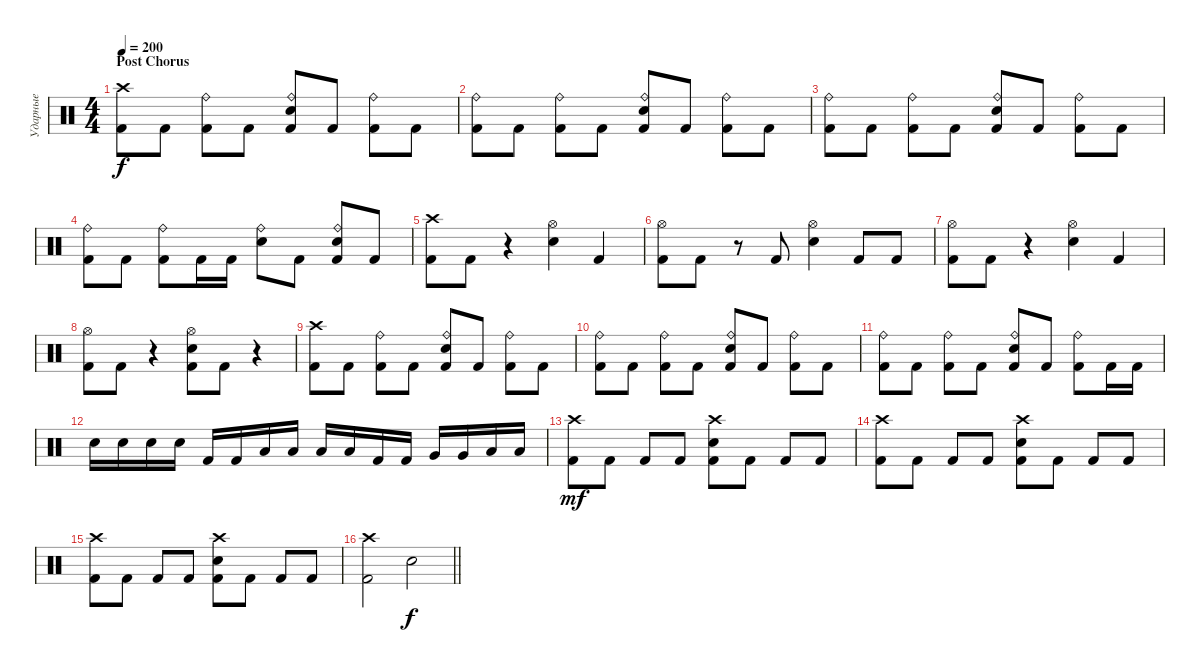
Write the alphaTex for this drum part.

\track ("Ударные" "Ударные") {instrument percussion}
\staff {score}
\articulation defaults
\ts (4 4)
\section ("" "Post Chorus")
\tempo 200
\clef neutral
\ks c
("Crash high (hit)" "Kick (hit) 2").8{dy f} "Kick (hit) 2".8 ("Ride (bell)" "Kick (hit) 2").8 "Kick (hit) 2".8 ("Ride (bell)" "Snare (hit) 2" "Kick (hit) 2").8 "Kick (hit) 2".8 ("Ride (bell)" "Kick (hit) 2").8 "Kick (hit) 2".8 |
("Ride (bell)" "Kick (hit) 2").8 "Kick (hit) 2".8 ("Ride (bell)" "Kick (hit) 2").8 "Kick (hit) 2".8 ("Ride (bell)" "Snare (hit) 2" "Kick (hit) 2").8 "Kick (hit) 2".8 ("Ride (bell)" "Kick (hit) 2").8 "Kick (hit) 2".8 |
("Ride (bell)" "Kick (hit) 2").8 "Kick (hit) 2".8 ("Ride (bell)" "Kick (hit) 2").8 "Kick (hit) 2".8 ("Ride (bell)" "Snare (hit) 2" "Kick (hit) 2").8 "Kick (hit) 2".8 ("Ride (bell)" "Kick (hit) 2").8 "Kick (hit) 2".8 |
("Ride (bell)" "Kick (hit) 2").8 "Kick (hit) 2".8 ("Ride (bell)" "Kick (hit) 2").8 "Kick (hit) 2".16 "Kick (hit) 2".16 ("Ride (bell)" "Snare (hit) 2").8 "Kick (hit) 2".8 ("Ride (bell)" "Snare (hit) 2" "Kick (hit) 2").8 "Kick (hit) 2".8 |
("Crash high (hit)" "Kick (hit) 2").8 "Kick (hit) 2".8 r.4 ("Hi-Hat (open)" "Snare (hit) 2").4 "Kick (hit) 2".4 |
("Hi-Hat (open)" "Kick (hit) 2").8 "Kick (hit) 2".8 r.8 "Kick (hit) 2".8 ("Hi-Hat (open)" "Snare (hit) 2").4 "Kick (hit) 2".8 "Kick (hit) 2".8 |
("Hi-Hat (open)" "Kick (hit) 2").8 "Kick (hit) 2".8 r.4 ("Hi-Hat (open)" "Snare (hit) 2").4 "Kick (hit) 2".4 |
("Hi-Hat (open)" "Kick (hit) 2").8 "Kick (hit) 2".8 r.4 ("Hi-Hat (open)" "Snare (hit) 2" "Kick (hit) 2").8 "Kick (hit) 2".8 r.4 |
("Crash high (hit)" "Kick (hit) 2").8 "Kick (hit) 2".8 ("Ride (bell)" "Kick (hit) 2").8 "Kick (hit) 2".8 ("Ride (bell)" "Snare (hit) 2" "Kick (hit) 2").8 "Kick (hit) 2".8 ("Ride (bell)" "Kick (hit) 2").8 "Kick (hit) 2".8 |
("Ride (bell)" "Kick (hit) 2").8 "Kick (hit) 2".8 ("Ride (bell)" "Kick (hit) 2").8 "Kick (hit) 2".8 ("Ride (bell)" "Snare (hit) 2" "Kick (hit) 2").8 "Kick (hit) 2".8 ("Ride (bell)" "Kick (hit) 2").8 "Kick (hit) 2".8 |
("Ride (bell)" "Kick (hit) 2").8 "Kick (hit) 2".8 ("Ride (bell)" "Kick (hit) 2").8 "Kick (hit) 2".8 ("Ride (bell)" "Snare (hit) 2" "Kick (hit) 2").8 "Kick (hit) 2".8 ("Ride (bell)" "Kick (hit) 2").8 "Kick (hit) 2".16 "Kick (hit) 2".16 |
"Snare (hit) 2".16 "Snare (hit) 2".16 "Snare (hit) 2".16 "Snare (hit) 2".16 "Kick (hit) 2".16 "Kick (hit) 2".16 "Low Tom (hit)".16 "Low Tom (hit)".16 "Low Tom (hit)".16 "Low Tom (hit)".16 "Kick (hit) 2".16 "Kick (hit) 2".16 "Very Low Tom (hit)".16 "Very Low Tom (hit)".16 "Low Floor Tom (hit)".16 "Low Floor Tom (hit)".16 |
("Crash high (hit)" "Kick (hit) 2").8{dy mf} "Kick (hit) 2".8 "Kick (hit) 2".8 "Kick (hit) 2".8 ("Crash high (hit)" "Snare (hit) 2" "Kick (hit) 2").8 "Kick (hit) 2".8 "Kick (hit) 2".8 "Kick (hit) 2".8 |
("Crash high (hit)" "Kick (hit) 2").8 "Kick (hit) 2".8 "Kick (hit) 2".8 "Kick (hit) 2".8 ("Crash high (hit)" "Snare (hit) 2" "Kick (hit) 2").8 "Kick (hit) 2".8 "Kick (hit) 2".8 "Kick (hit) 2".8 |
("Crash high (hit)" "Kick (hit) 2").8 "Kick (hit) 2".8 "Kick (hit) 2".8 "Kick (hit) 2".8 ("Crash high (hit)" "Snare (hit) 2" "Kick (hit) 2").8 "Kick (hit) 2".8 "Kick (hit) 2".8 "Kick (hit) 2".8 |
\barLineRight lightlight
("Crash high (hit)" "Kick (hit) 2").2 "Snare (hit) 2".2{dy f}
